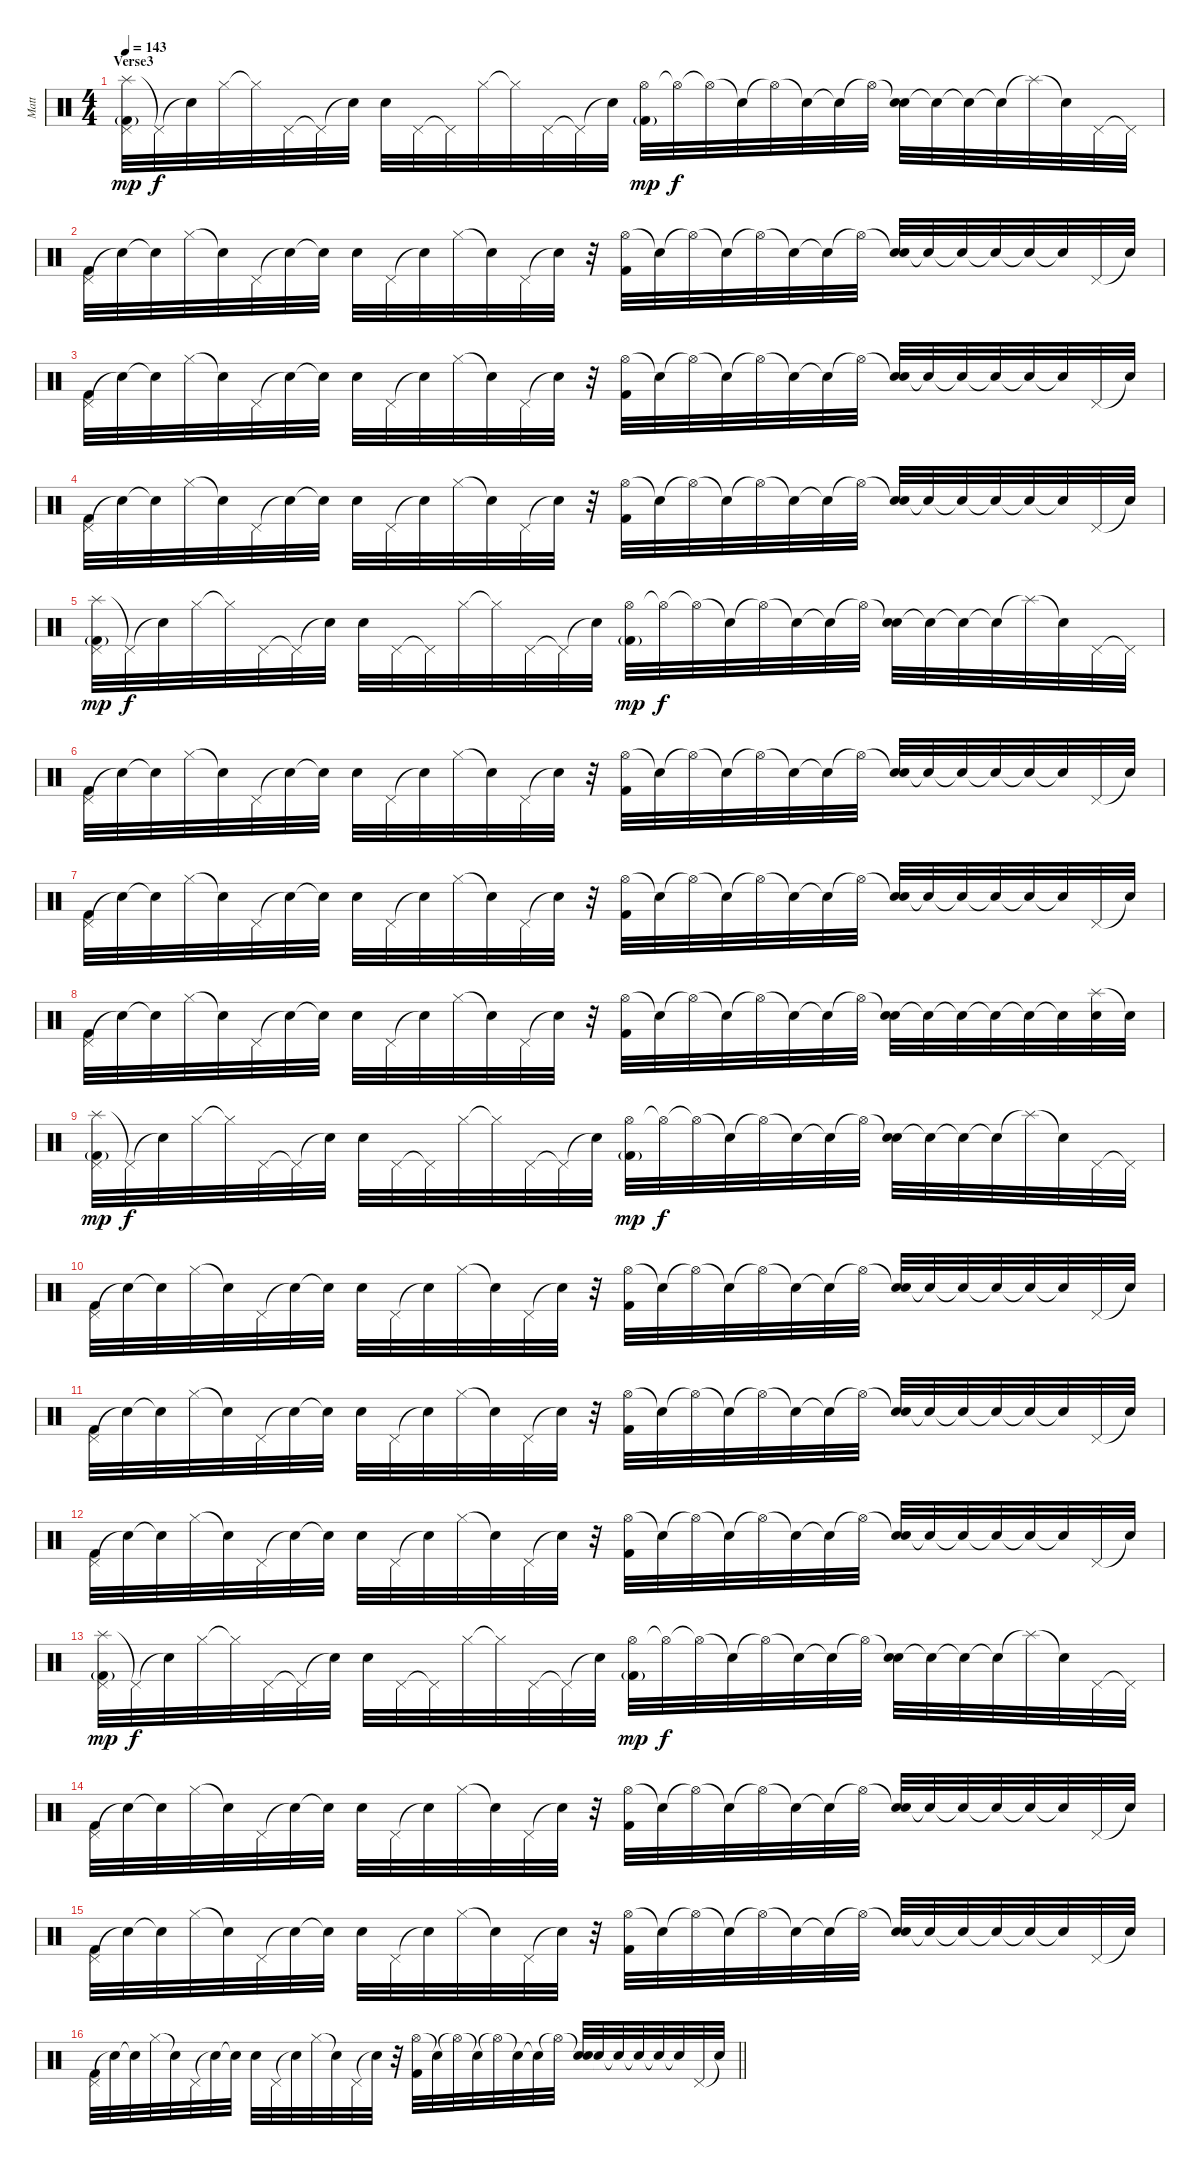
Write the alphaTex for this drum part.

\track ("Matt" "Matt") {instrument percussion}
\staff {score}
\articulation defaults
\ts (4 4)
\section ("" "Verse3")
\tempo 143
\clef neutral
\ks c
("Splash (hit)" "Pedal Hi-Hat (hit)" "Kick (hit) 2"{g}).32{dy mp} "Pedal Hi-Hat (hit)"{t}.32{dy f} "Snare (hit)"{t}.32 "Hi-Hat (closed)".32 "Hi-Hat (closed)"{t}.32 "Pedal Hi-Hat (hit)".32 "Pedal Hi-Hat (hit)"{t}.32 "Snare (hit)"{t}.32 "Snare (hit) 2".32 "Pedal Hi-Hat (hit)".32 "Pedal Hi-Hat (hit)"{t}.32 "Hi-Hat (closed)".32 "Hi-Hat (closed)"{t}.32 "Pedal Hi-Hat (hit)".32 "Pedal Hi-Hat (hit)"{t}.32 "Snare (hit)"{t}.32 ("Hi-Hat (open)" "Kick (hit) 2"{g}).32{dy mp} "Hi-Hat (open)"{t}.32{dy f} "Hi-Hat (open)"{t}.32 "Snare (hit)"{t}.32 "Hi-Hat (open)"{t}.32 "Snare (hit)"{t}.32 "Snare (hit)"{t}.32 "Hi-Hat (open)"{t}.32 ("Snare (hit)"{t} "Snare (hit) 2").32 "Snare (hit)"{t}.32 "Snare (hit)"{t}.32 "Snare (hit)"{t}.32 "Splash (hit)"{t}.32 "Snare (hit)"{t}.32 "Pedal Hi-Hat (hit)".32 "Pedal Hi-Hat (hit)"{t}.32 |
("Pedal Hi-Hat (hit)" "Kick (hit) 2").32 "Snare (hit)"{t}.32 "Snare (hit)"{t}.32 "Hi-Hat (closed)".32 "Snare (hit)"{t}.32 "Pedal Hi-Hat (hit)".32 "Snare (hit)"{t}.32 "Snare (hit)"{t}.32 "Snare (hit) 2".32 "Pedal Hi-Hat (hit)".32 "Snare (hit)"{t}.32 "Hi-Hat (closed)".32 "Snare (hit)"{t}.32 "Pedal Hi-Hat (hit)".32 "Snare (hit)"{t}.32 r.32 ("Hi-Hat (open)" "Kick (hit) 2").32 "Snare (hit)"{t}.32 "Hi-Hat (open)"{t}.32 "Snare (hit)"{t}.32 "Hi-Hat (open)"{t}.32 "Snare (hit)"{t}.32 "Snare (hit)"{t}.32 "Hi-Hat (open)"{t}.32 ("Snare (hit)"{t} "Snare (hit) 2").32 "Snare (hit)"{t}.32 "Snare (hit)"{t}.32 "Snare (hit)"{t}.32 "Snare (hit)"{t}.32 "Snare (hit)"{t}.32 "Pedal Hi-Hat (hit)".32 "Snare (hit)"{t}.32 |
("Pedal Hi-Hat (hit)" "Kick (hit) 2").32 "Snare (hit)"{t}.32 "Snare (hit)"{t}.32 "Hi-Hat (closed)".32 "Snare (hit)"{t}.32 "Pedal Hi-Hat (hit)".32 "Snare (hit)"{t}.32 "Snare (hit)"{t}.32 "Snare (hit) 2".32 "Pedal Hi-Hat (hit)".32 "Snare (hit)"{t}.32 "Hi-Hat (closed)".32 "Snare (hit)"{t}.32 "Pedal Hi-Hat (hit)".32 "Snare (hit)"{t}.32 r.32 ("Hi-Hat (open)" "Kick (hit) 2").32 "Snare (hit)"{t}.32 "Hi-Hat (open)"{t}.32 "Snare (hit)"{t}.32 "Hi-Hat (open)"{t}.32 "Snare (hit)"{t}.32 "Snare (hit)"{t}.32 "Hi-Hat (open)"{t}.32 ("Snare (hit)"{t} "Snare (hit) 2").32 "Snare (hit)"{t}.32 "Snare (hit)"{t}.32 "Snare (hit)"{t}.32 "Snare (hit)"{t}.32 "Snare (hit)"{t}.32 "Pedal Hi-Hat (hit)".32 "Snare (hit)"{t}.32 |
("Pedal Hi-Hat (hit)" "Kick (hit) 2").32 "Snare (hit)"{t}.32 "Snare (hit)"{t}.32 "Hi-Hat (closed)".32 "Snare (hit)"{t}.32 "Pedal Hi-Hat (hit)".32 "Snare (hit)"{t}.32 "Snare (hit)"{t}.32 "Snare (hit) 2".32 "Pedal Hi-Hat (hit)".32 "Snare (hit)"{t}.32 "Hi-Hat (closed)".32 "Snare (hit)"{t}.32 "Pedal Hi-Hat (hit)".32 "Snare (hit)"{t}.32 r.32 ("Hi-Hat (open)" "Kick (hit) 2").32 "Snare (hit)"{t}.32 "Hi-Hat (open)"{t}.32 "Snare (hit)"{t}.32 "Hi-Hat (open)"{t}.32 "Snare (hit)"{t}.32 "Snare (hit)"{t}.32 "Hi-Hat (open)"{t}.32 ("Snare (hit)"{t} "Snare (hit) 2").32 "Snare (hit)"{t}.32 "Snare (hit)"{t}.32 "Snare (hit)"{t}.32 "Snare (hit)"{t}.32 "Snare (hit)"{t}.32 "Pedal Hi-Hat (hit)".32 "Snare (hit)"{t}.32 |
("Splash (hit)" "Pedal Hi-Hat (hit)" "Kick (hit) 2"{g}).32{dy mp} "Pedal Hi-Hat (hit)"{t}.32{dy f} "Snare (hit)"{t}.32 "Hi-Hat (closed)".32 "Hi-Hat (closed)"{t}.32 "Pedal Hi-Hat (hit)".32 "Pedal Hi-Hat (hit)"{t}.32 "Snare (hit)"{t}.32 "Snare (hit) 2".32 "Pedal Hi-Hat (hit)".32 "Pedal Hi-Hat (hit)"{t}.32 "Hi-Hat (closed)".32 "Hi-Hat (closed)"{t}.32 "Pedal Hi-Hat (hit)".32 "Pedal Hi-Hat (hit)"{t}.32 "Snare (hit)"{t}.32 ("Hi-Hat (open)" "Kick (hit) 2"{g}).32{dy mp} "Hi-Hat (open)"{t}.32{dy f} "Hi-Hat (open)"{t}.32 "Snare (hit)"{t}.32 "Hi-Hat (open)"{t}.32 "Snare (hit)"{t}.32 "Snare (hit)"{t}.32 "Hi-Hat (open)"{t}.32 ("Snare (hit)"{t} "Snare (hit) 2").32 "Snare (hit)"{t}.32 "Snare (hit)"{t}.32 "Snare (hit)"{t}.32 "Splash (hit)"{t}.32 "Snare (hit)"{t}.32 "Pedal Hi-Hat (hit)".32 "Pedal Hi-Hat (hit)"{t}.32 |
("Pedal Hi-Hat (hit)" "Kick (hit) 2").32 "Snare (hit)"{t}.32 "Snare (hit)"{t}.32 "Hi-Hat (closed)".32 "Snare (hit)"{t}.32 "Pedal Hi-Hat (hit)".32 "Snare (hit)"{t}.32 "Snare (hit)"{t}.32 "Snare (hit) 2".32 "Pedal Hi-Hat (hit)".32 "Snare (hit)"{t}.32 "Hi-Hat (closed)".32 "Snare (hit)"{t}.32 "Pedal Hi-Hat (hit)".32 "Snare (hit)"{t}.32 r.32 ("Hi-Hat (open)" "Kick (hit) 2").32 "Snare (hit)"{t}.32 "Hi-Hat (open)"{t}.32 "Snare (hit)"{t}.32 "Hi-Hat (open)"{t}.32 "Snare (hit)"{t}.32 "Snare (hit)"{t}.32 "Hi-Hat (open)"{t}.32 ("Snare (hit)"{t} "Snare (hit) 2").32 "Snare (hit)"{t}.32 "Snare (hit)"{t}.32 "Snare (hit)"{t}.32 "Snare (hit)"{t}.32 "Snare (hit)"{t}.32 "Pedal Hi-Hat (hit)".32 "Snare (hit)"{t}.32 |
("Pedal Hi-Hat (hit)" "Kick (hit) 2").32 "Snare (hit)"{t}.32 "Snare (hit)"{t}.32 "Hi-Hat (closed)".32 "Snare (hit)"{t}.32 "Pedal Hi-Hat (hit)".32 "Snare (hit)"{t}.32 "Snare (hit)"{t}.32 "Snare (hit) 2".32 "Pedal Hi-Hat (hit)".32 "Snare (hit)"{t}.32 "Hi-Hat (closed)".32 "Snare (hit)"{t}.32 "Pedal Hi-Hat (hit)".32 "Snare (hit)"{t}.32 r.32 ("Hi-Hat (open)" "Kick (hit) 2").32 "Snare (hit)"{t}.32 "Hi-Hat (open)"{t}.32 "Snare (hit)"{t}.32 "Hi-Hat (open)"{t}.32 "Snare (hit)"{t}.32 "Snare (hit)"{t}.32 "Hi-Hat (open)"{t}.32 ("Snare (hit)"{t} "Snare (hit) 2").32 "Snare (hit)"{t}.32 "Snare (hit)"{t}.32 "Snare (hit)"{t}.32 "Snare (hit)"{t}.32 "Snare (hit)"{t}.32 "Pedal Hi-Hat (hit)".32 "Snare (hit)"{t}.32 |
("Pedal Hi-Hat (hit)" "Kick (hit) 2").32 "Snare (hit)"{t}.32 "Snare (hit)"{t}.32 "Hi-Hat (closed)".32 "Snare (hit)"{t}.32 "Pedal Hi-Hat (hit)".32 "Snare (hit)"{t}.32 "Snare (hit)"{t}.32 "Snare (hit) 2".32 "Pedal Hi-Hat (hit)".32 "Snare (hit)"{t}.32 "Hi-Hat (closed)".32 "Snare (hit)"{t}.32 "Pedal Hi-Hat (hit)".32 "Snare (hit)"{t}.32 r.32 ("Hi-Hat (open)" "Kick (hit) 2").32 "Snare (hit)"{t}.32 "Hi-Hat (open)"{t}.32 "Snare (hit)"{t}.32 "Hi-Hat (open)"{t}.32 "Snare (hit)"{t}.32 "Snare (hit)"{t}.32 "Hi-Hat (open)"{t}.32 ("Snare (hit)"{t} "Snare (hit) 2").32 "Snare (hit)"{t}.32 "Snare (hit)"{t}.32 "Snare (hit)"{t}.32 "Snare (hit)"{t}.32 "Snare (hit)"{t}.32 ("Splash (hit)" "Snare (hit) 2").32 "Snare (hit)"{t}.32 |
("Splash (hit)" "Pedal Hi-Hat (hit)" "Kick (hit) 2"{g}).32{dy mp} "Pedal Hi-Hat (hit)"{t}.32{dy f} "Snare (hit)"{t}.32 "Hi-Hat (closed)".32 "Hi-Hat (closed)"{t}.32 "Pedal Hi-Hat (hit)".32 "Pedal Hi-Hat (hit)"{t}.32 "Snare (hit)"{t}.32 "Snare (hit) 2".32 "Pedal Hi-Hat (hit)".32 "Pedal Hi-Hat (hit)"{t}.32 "Hi-Hat (closed)".32 "Hi-Hat (closed)"{t}.32 "Pedal Hi-Hat (hit)".32 "Pedal Hi-Hat (hit)"{t}.32 "Snare (hit)"{t}.32 ("Hi-Hat (open)" "Kick (hit) 2"{g}).32{dy mp} "Hi-Hat (open)"{t}.32{dy f} "Hi-Hat (open)"{t}.32 "Snare (hit)"{t}.32 "Hi-Hat (open)"{t}.32 "Snare (hit)"{t}.32 "Snare (hit)"{t}.32 "Hi-Hat (open)"{t}.32 ("Snare (hit)"{t} "Snare (hit) 2").32 "Snare (hit)"{t}.32 "Snare (hit)"{t}.32 "Snare (hit)"{t}.32 "Splash (hit)"{t}.32 "Snare (hit)"{t}.32 "Pedal Hi-Hat (hit)".32 "Pedal Hi-Hat (hit)"{t}.32 |
("Pedal Hi-Hat (hit)" "Kick (hit) 2").32 "Snare (hit)"{t}.32 "Snare (hit)"{t}.32 "Hi-Hat (closed)".32 "Snare (hit)"{t}.32 "Pedal Hi-Hat (hit)".32 "Snare (hit)"{t}.32 "Snare (hit)"{t}.32 "Snare (hit) 2".32 "Pedal Hi-Hat (hit)".32 "Snare (hit)"{t}.32 "Hi-Hat (closed)".32 "Snare (hit)"{t}.32 "Pedal Hi-Hat (hit)".32 "Snare (hit)"{t}.32 r.32 ("Hi-Hat (open)" "Kick (hit) 2").32 "Snare (hit)"{t}.32 "Hi-Hat (open)"{t}.32 "Snare (hit)"{t}.32 "Hi-Hat (open)"{t}.32 "Snare (hit)"{t}.32 "Snare (hit)"{t}.32 "Hi-Hat (open)"{t}.32 ("Snare (hit)"{t} "Snare (hit) 2").32 "Snare (hit)"{t}.32 "Snare (hit)"{t}.32 "Snare (hit)"{t}.32 "Snare (hit)"{t}.32 "Snare (hit)"{t}.32 "Pedal Hi-Hat (hit)".32 "Snare (hit)"{t}.32 |
("Pedal Hi-Hat (hit)" "Kick (hit) 2").32 "Snare (hit)"{t}.32 "Snare (hit)"{t}.32 "Hi-Hat (closed)".32 "Snare (hit)"{t}.32 "Pedal Hi-Hat (hit)".32 "Snare (hit)"{t}.32 "Snare (hit)"{t}.32 "Snare (hit) 2".32 "Pedal Hi-Hat (hit)".32 "Snare (hit)"{t}.32 "Hi-Hat (closed)".32 "Snare (hit)"{t}.32 "Pedal Hi-Hat (hit)".32 "Snare (hit)"{t}.32 r.32 ("Hi-Hat (open)" "Kick (hit) 2").32 "Snare (hit)"{t}.32 "Hi-Hat (open)"{t}.32 "Snare (hit)"{t}.32 "Hi-Hat (open)"{t}.32 "Snare (hit)"{t}.32 "Snare (hit)"{t}.32 "Hi-Hat (open)"{t}.32 ("Snare (hit)"{t} "Snare (hit) 2").32 "Snare (hit)"{t}.32 "Snare (hit)"{t}.32 "Snare (hit)"{t}.32 "Snare (hit)"{t}.32 "Snare (hit)"{t}.32 "Pedal Hi-Hat (hit)".32 "Snare (hit)"{t}.32 |
("Pedal Hi-Hat (hit)" "Kick (hit) 2").32 "Snare (hit)"{t}.32 "Snare (hit)"{t}.32 "Hi-Hat (closed)".32 "Snare (hit)"{t}.32 "Pedal Hi-Hat (hit)".32 "Snare (hit)"{t}.32 "Snare (hit)"{t}.32 "Snare (hit) 2".32 "Pedal Hi-Hat (hit)".32 "Snare (hit)"{t}.32 "Hi-Hat (closed)".32 "Snare (hit)"{t}.32 "Pedal Hi-Hat (hit)".32 "Snare (hit)"{t}.32 r.32 ("Hi-Hat (open)" "Kick (hit) 2").32 "Snare (hit)"{t}.32 "Hi-Hat (open)"{t}.32 "Snare (hit)"{t}.32 "Hi-Hat (open)"{t}.32 "Snare (hit)"{t}.32 "Snare (hit)"{t}.32 "Hi-Hat (open)"{t}.32 ("Snare (hit)"{t} "Snare (hit) 2").32 "Snare (hit)"{t}.32 "Snare (hit)"{t}.32 "Snare (hit)"{t}.32 "Snare (hit)"{t}.32 "Snare (hit)"{t}.32 "Pedal Hi-Hat (hit)".32 "Snare (hit)"{t}.32 |
("Splash (hit)" "Pedal Hi-Hat (hit)" "Kick (hit) 2"{g}).32{dy mp} "Pedal Hi-Hat (hit)"{t}.32{dy f} "Snare (hit)"{t}.32 "Hi-Hat (closed)".32 "Hi-Hat (closed)"{t}.32 "Pedal Hi-Hat (hit)".32 "Pedal Hi-Hat (hit)"{t}.32 "Snare (hit)"{t}.32 "Snare (hit) 2".32 "Pedal Hi-Hat (hit)".32 "Pedal Hi-Hat (hit)"{t}.32 "Hi-Hat (closed)".32 "Hi-Hat (closed)"{t}.32 "Pedal Hi-Hat (hit)".32 "Pedal Hi-Hat (hit)"{t}.32 "Snare (hit)"{t}.32 ("Hi-Hat (open)" "Kick (hit) 2"{g}).32{dy mp} "Hi-Hat (open)"{t}.32{dy f} "Hi-Hat (open)"{t}.32 "Snare (hit)"{t}.32 "Hi-Hat (open)"{t}.32 "Snare (hit)"{t}.32 "Snare (hit)"{t}.32 "Hi-Hat (open)"{t}.32 ("Snare (hit)"{t} "Snare (hit) 2").32 "Snare (hit)"{t}.32 "Snare (hit)"{t}.32 "Snare (hit)"{t}.32 "Splash (hit)"{t}.32 "Snare (hit)"{t}.32 "Pedal Hi-Hat (hit)".32 "Pedal Hi-Hat (hit)"{t}.32 |
("Pedal Hi-Hat (hit)" "Kick (hit) 2").32 "Snare (hit)"{t}.32 "Snare (hit)"{t}.32 "Hi-Hat (closed)".32 "Snare (hit)"{t}.32 "Pedal Hi-Hat (hit)".32 "Snare (hit)"{t}.32 "Snare (hit)"{t}.32 "Snare (hit) 2".32 "Pedal Hi-Hat (hit)".32 "Snare (hit)"{t}.32 "Hi-Hat (closed)".32 "Snare (hit)"{t}.32 "Pedal Hi-Hat (hit)".32 "Snare (hit)"{t}.32 r.32 ("Hi-Hat (open)" "Kick (hit) 2").32 "Snare (hit)"{t}.32 "Hi-Hat (open)"{t}.32 "Snare (hit)"{t}.32 "Hi-Hat (open)"{t}.32 "Snare (hit)"{t}.32 "Snare (hit)"{t}.32 "Hi-Hat (open)"{t}.32 ("Snare (hit)"{t} "Snare (hit) 2").32 "Snare (hit)"{t}.32 "Snare (hit)"{t}.32 "Snare (hit)"{t}.32 "Snare (hit)"{t}.32 "Snare (hit)"{t}.32 "Pedal Hi-Hat (hit)".32 "Snare (hit)"{t}.32 |
("Pedal Hi-Hat (hit)" "Kick (hit) 2").32 "Snare (hit)"{t}.32 "Snare (hit)"{t}.32 "Hi-Hat (closed)".32 "Snare (hit)"{t}.32 "Pedal Hi-Hat (hit)".32 "Snare (hit)"{t}.32 "Snare (hit)"{t}.32 "Snare (hit) 2".32 "Pedal Hi-Hat (hit)".32 "Snare (hit)"{t}.32 "Hi-Hat (closed)".32 "Snare (hit)"{t}.32 "Pedal Hi-Hat (hit)".32 "Snare (hit)"{t}.32 r.32 ("Hi-Hat (open)" "Kick (hit) 2").32 "Snare (hit)"{t}.32 "Hi-Hat (open)"{t}.32 "Snare (hit)"{t}.32 "Hi-Hat (open)"{t}.32 "Snare (hit)"{t}.32 "Snare (hit)"{t}.32 "Hi-Hat (open)"{t}.32 ("Snare (hit)"{t} "Snare (hit) 2").32 "Snare (hit)"{t}.32 "Snare (hit)"{t}.32 "Snare (hit)"{t}.32 "Snare (hit)"{t}.32 "Snare (hit)"{t}.32 "Pedal Hi-Hat (hit)".32 "Snare (hit)"{t}.32 |
\barLineRight lightlight
("Pedal Hi-Hat (hit)" "Kick (hit) 2").32 "Snare (hit)"{t}.32 "Snare (hit)"{t}.32 "Hi-Hat (closed)".32 "Snare (hit)"{t}.32 "Pedal Hi-Hat (hit)".32 "Snare (hit)"{t}.32 "Snare (hit)"{t}.32 "Snare (hit) 2".32 "Pedal Hi-Hat (hit)".32 "Snare (hit)"{t}.32 "Hi-Hat (closed)".32 "Snare (hit)"{t}.32 "Pedal Hi-Hat (hit)".32 "Snare (hit)"{t}.32 r.32 ("Hi-Hat (open)" "Kick (hit) 2").32 "Snare (hit)"{t}.32 "Hi-Hat (open)"{t}.32 "Snare (hit)"{t}.32 "Hi-Hat (open)"{t}.32 "Snare (hit)"{t}.32 "Snare (hit)"{t}.32 "Hi-Hat (open)"{t}.32 ("Snare (hit)"{t} "Snare (hit) 2").32 "Snare (hit)"{t}.32 "Snare (hit)"{t}.32 "Snare (hit)"{t}.32 "Snare (hit)"{t}.32 "Snare (hit)"{t}.32 "Pedal Hi-Hat (hit)".32 "Snare (hit)"{t}.32
